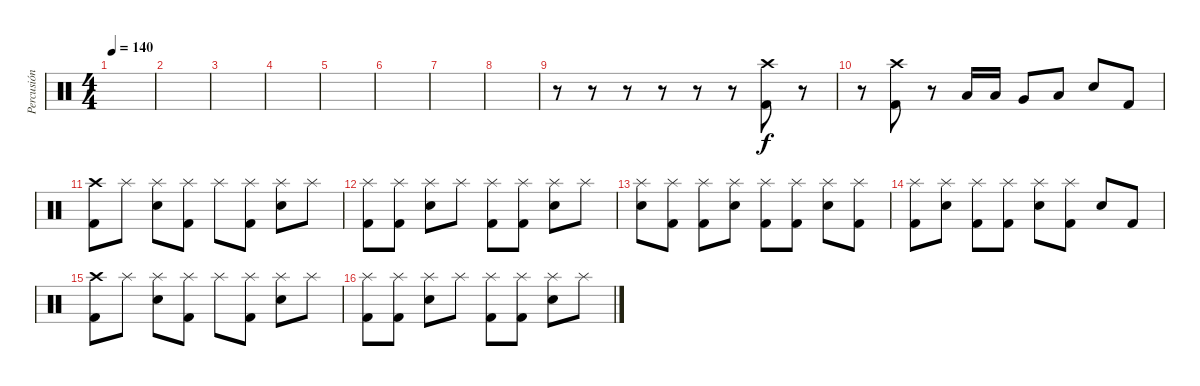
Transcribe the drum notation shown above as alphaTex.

\track ("Percusión" "Percusión") {instrument percussion}
\staff {score}
\articulation defaults
\ts (4 4)
\tempo 140
\clef neutral
\ks c
|
|
|
|
|
|
|
|
r.8 r.8 r.8 r.8 r.8 r.8 ("Crash high (hit)" "Kick (hit) 2").8 r.8 |
r.8 ("Crash high (hit)" "Kick (hit) 2").8 r.8 "Low Floor Tom (hit)".16 "Low Floor Tom (hit)".16 "Very Low Tom (hit)".8 "Low Floor Tom (hit)".8 "Electric Snare (hit)".8 "Kick (hit) 2".8 |
("Crash high (hit)" "Kick (hit) 2").8 "Splash (hit)".8 ("Splash (hit)" "Electric Snare (hit)").8 ("Splash (hit)" "Kick (hit) 2").8 "Splash (hit)".8 ("Splash (hit)" "Kick (hit) 2").8 ("Splash (hit)" "Electric Snare (hit)").8 "Splash (hit)".8 |
("Splash (hit)" "Kick (hit) 2").8 ("Splash (hit)" "Kick (hit) 2").8 ("Splash (hit)" "Electric Snare (hit)").8 "Splash (hit)".8 ("Splash (hit)" "Kick (hit) 2").8 ("Splash (hit)" "Kick (hit) 2").8 ("Splash (hit)" "Electric Snare (hit)").8 "Splash (hit)".8 |
("Splash (hit)" "Electric Snare (hit)").8 ("Splash (hit)" "Kick (hit) 2").8 ("Splash (hit)" "Kick (hit) 2").8 ("Splash (hit)" "Electric Snare (hit)").8 ("Splash (hit)" "Kick (hit) 2").8 ("Splash (hit)" "Kick (hit) 2").8 ("Splash (hit)" "Electric Snare (hit)").8 ("Splash (hit)" "Kick (hit) 2").8 |
("Splash (hit)" "Kick (hit) 2").8 ("Splash (hit)" "Electric Snare (hit)").8 ("Splash (hit)" "Kick (hit) 2").8 ("Splash (hit)" "Kick (hit) 2").8 ("Splash (hit)" "Electric Snare (hit)").8 ("Splash (hit)" "Kick (hit) 2").8 "Electric Snare (hit)".8 "Kick (hit) 2".8 |
("Crash high (hit)" "Kick (hit) 2").8 "Splash (hit)".8 ("Splash (hit)" "Electric Snare (hit)").8 ("Splash (hit)" "Kick (hit) 2").8 "Splash (hit)".8 ("Splash (hit)" "Kick (hit) 2").8 ("Splash (hit)" "Electric Snare (hit)").8 "Splash (hit)".8 |
("Splash (hit)" "Kick (hit) 2").8 ("Splash (hit)" "Kick (hit) 2").8 ("Splash (hit)" "Electric Snare (hit)").8 "Splash (hit)".8 ("Splash (hit)" "Kick (hit) 2").8 ("Splash (hit)" "Kick (hit) 2").8 ("Splash (hit)" "Electric Snare (hit)").8 "Splash (hit)".8
